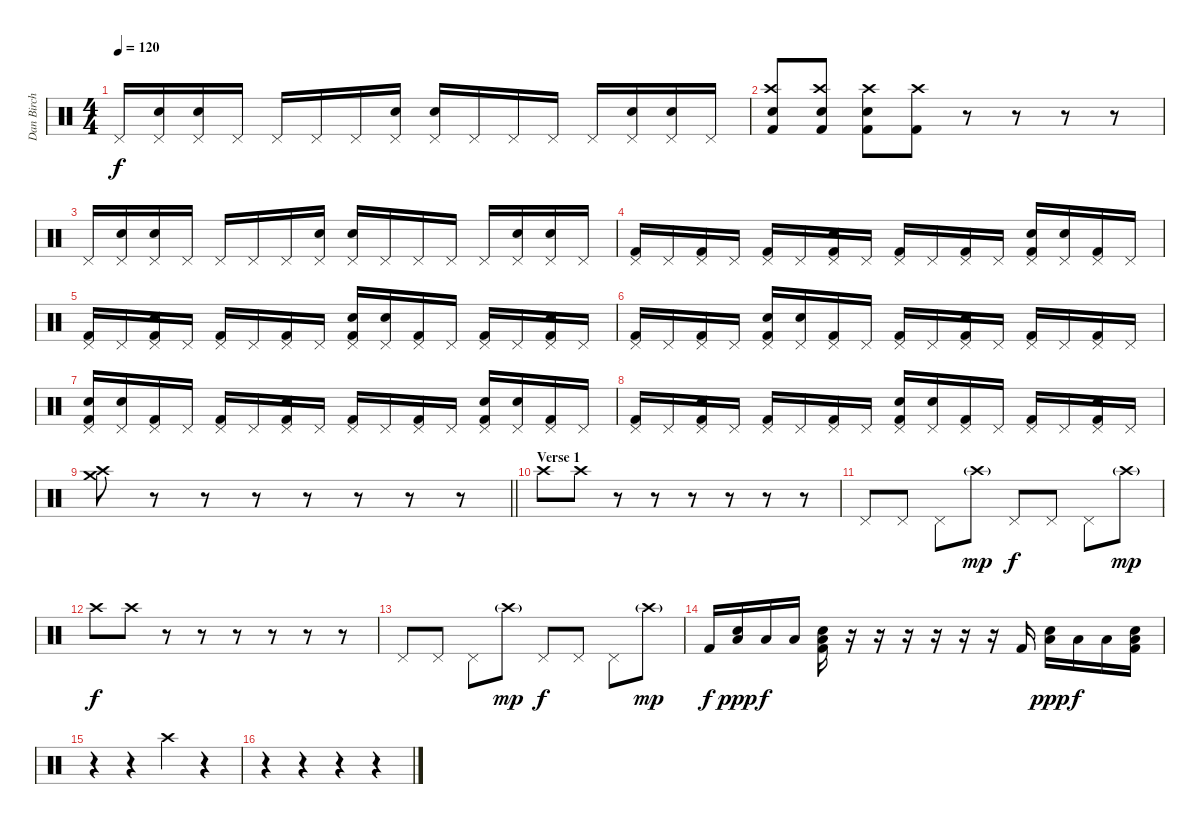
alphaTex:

\track ("Dan Birch" "Dan Birch") {instrument percussion}
\staff {score}
\articulation defaults
\ts (4 4)
\tempo 120
\clef neutral
\ks c "Pedal Hi-Hat (hit)".16{dy f}
("Pedal Hi-Hat (hit)" "Snare (hit) 2").16 ("Pedal Hi-Hat (hit)" "Snare (hit) 2").16 "Pedal Hi-Hat (hit)".16 "Pedal Hi-Hat (hit)".16 "Pedal Hi-Hat (hit)".16 "Pedal Hi-Hat (hit)".16 ("Pedal Hi-Hat (hit)" "Snare (hit) 2").16 ("Pedal Hi-Hat (hit)" "Snare (hit) 2").16 "Pedal Hi-Hat (hit)".16 "Pedal Hi-Hat (hit)".16 "Pedal Hi-Hat (hit)".16 "Pedal Hi-Hat (hit)".16 ("Pedal Hi-Hat (hit)" "Snare (hit) 2").16 ("Pedal Hi-Hat (hit)" "Snare (hit) 2").16 "Pedal Hi-Hat (hit)".16 |
("Crash high (hit)" "Snare (hit) 2" "Kick (hit) 2").8 ("Crash high (hit)" "Snare (hit) 2" "Kick (hit) 2").8 ("Crash high (hit)" "Snare (hit) 2" "Kick (hit) 2").8 ("Crash high (hit)" "Kick (hit) 2").8 r.8 r.8 r.8 r.8 |
"Pedal Hi-Hat (hit)".16 ("Pedal Hi-Hat (hit)" "Snare (hit) 2").16 ("Pedal Hi-Hat (hit)" "Snare (hit) 2").16 "Pedal Hi-Hat (hit)".16 "Pedal Hi-Hat (hit)".16 "Pedal Hi-Hat (hit)".16 "Pedal Hi-Hat (hit)".16 ("Pedal Hi-Hat (hit)" "Snare (hit) 2").16 ("Pedal Hi-Hat (hit)" "Snare (hit) 2").16 "Pedal Hi-Hat (hit)".16 "Pedal Hi-Hat (hit)".16 "Pedal Hi-Hat (hit)".16 "Pedal Hi-Hat (hit)".16 ("Pedal Hi-Hat (hit)" "Snare (hit) 2").16 ("Pedal Hi-Hat (hit)" "Snare (hit) 2").16 "Pedal Hi-Hat (hit)".16 |
("Pedal Hi-Hat (hit)" "Kick (hit) 2").16 "Pedal Hi-Hat (hit)".16 ("Pedal Hi-Hat (hit)" "Kick (hit) 2").16 "Pedal Hi-Hat (hit)".16 ("Pedal Hi-Hat (hit)" "Kick (hit) 2").16 "Pedal Hi-Hat (hit)".16 ("Pedal Hi-Hat (hit)" "Snare (hit) 2" "Kick (hit) 2").16 "Pedal Hi-Hat (hit)".16 ("Pedal Hi-Hat (hit)" "Kick (hit) 2").16 "Pedal Hi-Hat (hit)".16 ("Pedal Hi-Hat (hit)" "Kick (hit) 2").16 "Pedal Hi-Hat (hit)".16 ("Pedal Hi-Hat (hit)" "Snare (hit) 2" "Kick (hit) 2").16 ("Pedal Hi-Hat (hit)" "Snare (hit) 2").16 ("Pedal Hi-Hat (hit)" "Kick (hit) 2").16 "Pedal Hi-Hat (hit)".16 |
("Pedal Hi-Hat (hit)" "Kick (hit) 2").16 "Pedal Hi-Hat (hit)".16 ("Pedal Hi-Hat (hit)" "Snare (hit) 2" "Kick (hit) 2").16 "Pedal Hi-Hat (hit)".16 ("Pedal Hi-Hat (hit)" "Kick (hit) 2").16 "Pedal Hi-Hat (hit)".16 ("Pedal Hi-Hat (hit)" "Kick (hit) 2").16 "Pedal Hi-Hat (hit)".16 ("Pedal Hi-Hat (hit)" "Snare (hit) 2" "Kick (hit) 2").16 ("Pedal Hi-Hat (hit)" "Snare (hit) 2").16 ("Pedal Hi-Hat (hit)" "Kick (hit) 2").16 "Pedal Hi-Hat (hit)".16 ("Pedal Hi-Hat (hit)" "Kick (hit) 2").16 "Pedal Hi-Hat (hit)".16 ("Pedal Hi-Hat (hit)" "Snare (hit) 2" "Kick (hit) 2").16 "Pedal Hi-Hat (hit)".16 |
("Pedal Hi-Hat (hit)" "Kick (hit) 2").16 "Pedal Hi-Hat (hit)".16 ("Pedal Hi-Hat (hit)" "Kick (hit) 2").16 "Pedal Hi-Hat (hit)".16 ("Pedal Hi-Hat (hit)" "Snare (hit) 2" "Kick (hit) 2").16 ("Pedal Hi-Hat (hit)" "Snare (hit) 2").16 ("Pedal Hi-Hat (hit)" "Kick (hit) 2").16 "Pedal Hi-Hat (hit)".16 ("Pedal Hi-Hat (hit)" "Kick (hit) 2").16 "Pedal Hi-Hat (hit)".16 ("Pedal Hi-Hat (hit)" "Snare (hit) 2" "Kick (hit) 2").16 "Pedal Hi-Hat (hit)".16 ("Pedal Hi-Hat (hit)" "Kick (hit) 2").16 "Pedal Hi-Hat (hit)".16 ("Pedal Hi-Hat (hit)" "Kick (hit) 2").16 "Pedal Hi-Hat (hit)".16 |
("Pedal Hi-Hat (hit)" "Snare (hit) 2" "Kick (hit) 2").16 ("Pedal Hi-Hat (hit)" "Snare (hit) 2").16 ("Pedal Hi-Hat (hit)" "Kick (hit) 2").16 "Pedal Hi-Hat (hit)".16 ("Pedal Hi-Hat (hit)" "Kick (hit) 2").16 "Pedal Hi-Hat (hit)".16 ("Pedal Hi-Hat (hit)" "Snare (hit) 2" "Kick (hit) 2").16 "Pedal Hi-Hat (hit)".16 ("Pedal Hi-Hat (hit)" "Kick (hit) 2").16 "Pedal Hi-Hat (hit)".16 ("Pedal Hi-Hat (hit)" "Kick (hit) 2").16 "Pedal Hi-Hat (hit)".16 ("Pedal Hi-Hat (hit)" "Snare (hit) 2" "Kick (hit) 2").16 ("Pedal Hi-Hat (hit)" "Snare (hit) 2").16 ("Pedal Hi-Hat (hit)" "Kick (hit) 2").16 "Pedal Hi-Hat (hit)".16 |
("Pedal Hi-Hat (hit)" "Kick (hit) 2").16 "Pedal Hi-Hat (hit)".16 ("Pedal Hi-Hat (hit)" "Snare (hit) 2" "Kick (hit) 2").16 "Pedal Hi-Hat (hit)".16 ("Pedal Hi-Hat (hit)" "Kick (hit) 2").16 "Pedal Hi-Hat (hit)".16 ("Pedal Hi-Hat (hit)" "Kick (hit) 2").16 "Pedal Hi-Hat (hit)".16 ("Pedal Hi-Hat (hit)" "Snare (hit) 2" "Kick (hit) 2").16 ("Pedal Hi-Hat (hit)" "Snare (hit) 2").16 ("Pedal Hi-Hat (hit)" "Kick (hit) 2").16 "Pedal Hi-Hat (hit)".16 ("Pedal Hi-Hat (hit)" "Kick (hit) 2").16 "Pedal Hi-Hat (hit)".16 ("Pedal Hi-Hat (hit)" "Snare (hit) 2" "Kick (hit) 2").16 "Pedal Hi-Hat (hit)".16 |
\barLineRight lightlight
("Crash high (hit)" "Crash medium (hit)").8 r.8 r.8 r.8 r.8 r.8 r.8 r.8 |
\section ("" "Verse 1")
"Crash high (hit)".8 "Crash high (hit)".8 r.8 r.8 r.8 r.8 r.8 r.8 |
"Pedal Hi-Hat (hit)".8 "Pedal Hi-Hat (hit)".8 "Pedal Hi-Hat (hit)".8 "Crash high (hit)"{g}.8{dy mp} "Pedal Hi-Hat (hit)".8{dy f} "Pedal Hi-Hat (hit)".8 "Pedal Hi-Hat (hit)".8 "Crash high (hit)"{g}.8{dy mp} |
"Crash high (hit)".8{dy f} "Crash high (hit)".8 r.8 r.8 r.8 r.8 r.8 r.8 |
"Pedal Hi-Hat (hit)".8 "Pedal Hi-Hat (hit)".8 "Pedal Hi-Hat (hit)".8 "Crash high (hit)"{g}.8{dy mp} "Pedal Hi-Hat (hit)".8{dy f} "Pedal Hi-Hat (hit)".8 "Pedal Hi-Hat (hit)".8 "Crash high (hit)"{g}.8{dy mp} |
"Kick (hit) 2".16{dy f} ("Snare (hit) 2" "Low Tom (hit)").16{dy ppp} "Low Tom (hit)".16{dy f} "Low Tom (hit)".16 ("Snare (hit) 2" "Low Tom (hit)" "Kick (hit) 2").16 r.16 r.16 r.16 r.16 r.16 r.16 "Kick (hit) 2".16 ("Snare (hit) 2" "Low Tom (hit)").16{dy ppp} "Low Tom (hit)".16{dy f} "Low Tom (hit)".16 ("Snare (hit) 2" "Low Tom (hit)" "Kick (hit) 2").16 |
r.4 r.4 "Crash high (hit)".4 r.4 |
r.4 r.4 r.4 r.4
